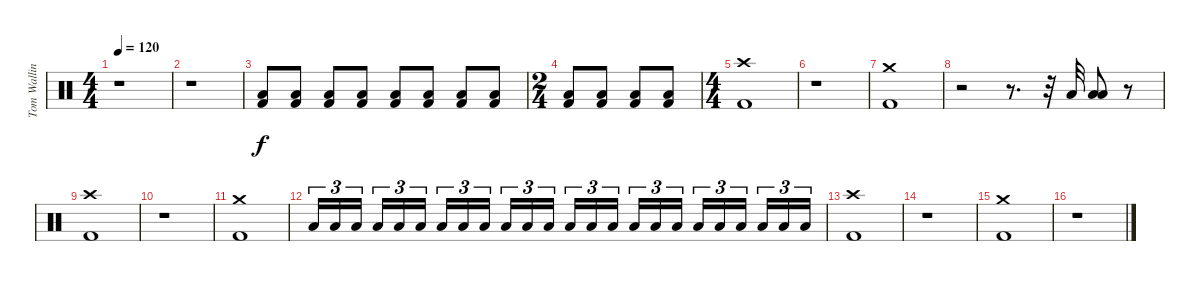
\track ("Tom Walling (Drums)" "Tom Wallin") {instrument percussion}
\staff {score}
\articulation defaults
\ts (4 4)
\tempo 120
\clef neutral
\ks c
r.1{dy f} |
r.1 |
("Low Floor Tom (hit)" "Kick (hit) 2").8{volume 6} ("Low Floor Tom (hit)" "Kick (hit) 2").8{volume 7} ("Low Floor Tom (hit)" "Kick (hit) 2").8{volume 8} ("Low Floor Tom (hit)" "Kick (hit) 2").8{volume 9} ("Low Floor Tom (hit)" "Kick (hit) 2").8{volume 9} ("Low Floor Tom (hit)" "Kick (hit) 2").8{volume 10} ("Low Floor Tom (hit)" "Kick (hit) 2").8{volume 11} ("Low Floor Tom (hit)" "Kick (hit) 2").8{volume 12} |
\ts (2 4)
("Low Floor Tom (hit)" "Kick (hit) 2").8{volume 13} ("Low Floor Tom (hit)" "Kick (hit) 2").8{volume 13} ("Low Floor Tom (hit)" "Kick (hit) 2").8{volume 14} ("Low Floor Tom (hit)" "Kick (hit) 2").8{volume 15} |
\ts (4 4)
("Crash high (hit)" "Kick (hit) 2").1{volume 16 balance 8} |
r.1 |
("Crash medium (hit)" "Kick (hit) 2").1 |
r.2 r.8{d} r.32 "Low Tom (hit)".32 ("Low Floor Tom (hit)" "Low Tom (hit)").8 r.8 |
("Crash high (hit)" "Kick (hit) 2").1 |
r.1 |
("Crash medium (hit)" "Kick (hit) 2").1 |
"Low Floor Tom (hit)".16{tu (3 2) volume 2} "Low Floor Tom (hit)".16{tu (3 2) volume 2} "Low Floor Tom (hit)".16{tu (3 2) volume 3} "Low Floor Tom (hit)".16{tu (3 2) volume 3} "Low Floor Tom (hit)".16{tu (3 2) volume 4} "Low Floor Tom (hit)".16{tu (3 2) volume 4} "Low Floor Tom (hit)".16{tu (3 2) volume 5} "Low Floor Tom (hit)".16{tu (3 2) volume 6} "Low Floor Tom (hit)".16{tu (3 2) volume 6} "Low Floor Tom (hit)".16{tu (3 2) volume 7} "Low Floor Tom (hit)".16{tu (3 2) volume 8} "Low Floor Tom (hit)".16{tu (3 2) volume 8} "Low Floor Tom (hit)".16{tu (3 2) volume 9} "Low Floor Tom (hit)".16{tu (3 2) volume 9} "Low Floor Tom (hit)".16{tu (3 2) volume 10} "Low Floor Tom (hit)".16{tu (3 2) volume 10} "Low Floor Tom (hit)".16{tu (3 2) volume 11} "Low Floor Tom (hit)".16{tu (3 2) volume 12} "Low Floor Tom (hit)".16{tu (3 2) volume 12} "Low Floor Tom (hit)".16{tu (3 2) volume 13} "Low Floor Tom (hit)".16{tu (3 2) volume 14} "Low Floor Tom (hit)".16{tu (3 2) volume 14} "Low Floor Tom (hit)".16{tu (3 2) volume 15} "Low Floor Tom (hit)".16{tu (3 2) volume 15} |
("Crash high (hit)" "Kick (hit) 2").1{volume 16} |
r.1 |
("Crash medium (hit)" "Kick (hit) 2").1 |
r.1
